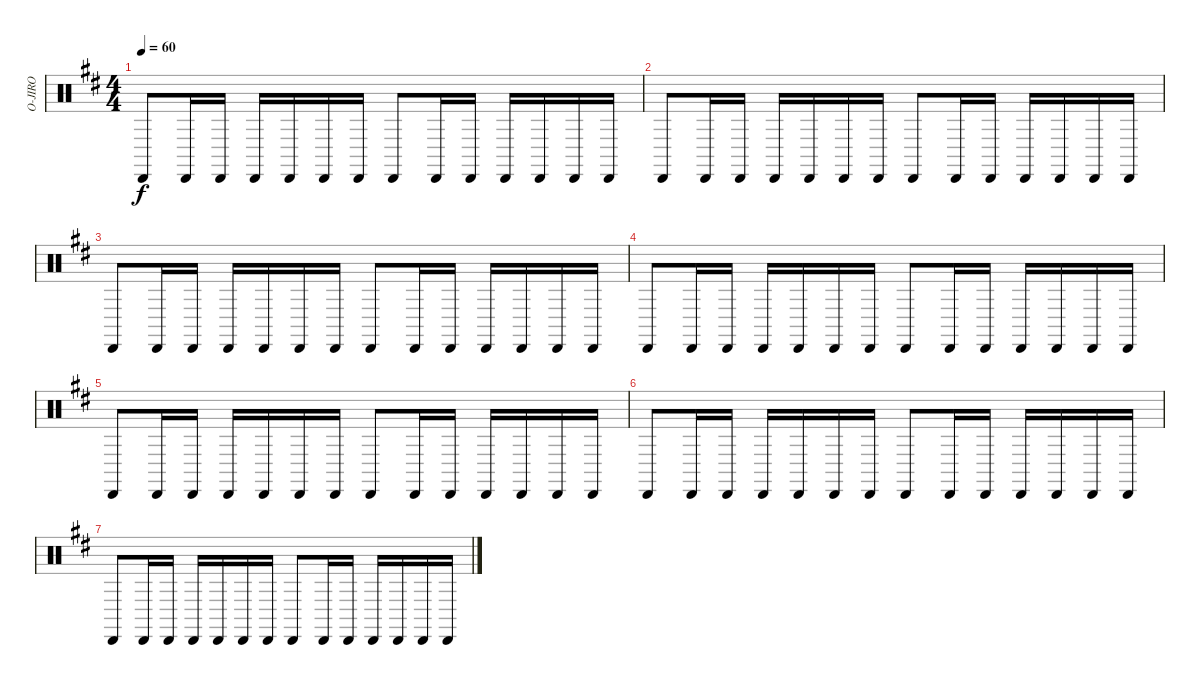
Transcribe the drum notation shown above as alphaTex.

\track ("O-JIRO" "O-JIRO") {instrument percussion}
\staff {score}
\articulation defaults
\ts (4 4)
\tempo 60
\clef neutral
\ks d "Cabasa (hit)".8{dy f} "Cabasa (hit)".16 "Cabasa (hit)".16 "Cabasa (hit)".16 "Cabasa (hit)".16 "Cabasa (hit)".16 "Cabasa (hit)".16 "Cabasa (hit)".8 "Cabasa (hit)".16 "Cabasa (hit)".16 "Cabasa (hit)".16 "Cabasa (hit)".16 "Cabasa (hit)".16 "Cabasa (hit)".16
|
"Cabasa (hit)".8 "Cabasa (hit)".16 "Cabasa (hit)".16 "Cabasa (hit)".16 "Cabasa (hit)".16 "Cabasa (hit)".16 "Cabasa (hit)".16 "Cabasa (hit)".8 "Cabasa (hit)".16 "Cabasa (hit)".16 "Cabasa (hit)".16 "Cabasa (hit)".16 "Cabasa (hit)".16 "Cabasa (hit)".16 |
"Cabasa (hit)".8 "Cabasa (hit)".16 "Cabasa (hit)".16 "Cabasa (hit)".16 "Cabasa (hit)".16 "Cabasa (hit)".16 "Cabasa (hit)".16 "Cabasa (hit)".8 "Cabasa (hit)".16 "Cabasa (hit)".16 "Cabasa (hit)".16 "Cabasa (hit)".16 "Cabasa (hit)".16 "Cabasa (hit)".16 |
"Cabasa (hit)".8 "Cabasa (hit)".16 "Cabasa (hit)".16 "Cabasa (hit)".16 "Cabasa (hit)".16 "Cabasa (hit)".16 "Cabasa (hit)".16 "Cabasa (hit)".8 "Cabasa (hit)".16 "Cabasa (hit)".16 "Cabasa (hit)".16 "Cabasa (hit)".16 "Cabasa (hit)".16 "Cabasa (hit)".16 |
"Cabasa (hit)".8 "Cabasa (hit)".16 "Cabasa (hit)".16 "Cabasa (hit)".16 "Cabasa (hit)".16 "Cabasa (hit)".16 "Cabasa (hit)".16 "Cabasa (hit)".8 "Cabasa (hit)".16 "Cabasa (hit)".16 "Cabasa (hit)".16 "Cabasa (hit)".16 "Cabasa (hit)".16 "Cabasa (hit)".16 |
"Cabasa (hit)".8 "Cabasa (hit)".16 "Cabasa (hit)".16 "Cabasa (hit)".16 "Cabasa (hit)".16 "Cabasa (hit)".16 "Cabasa (hit)".16 "Cabasa (hit)".8 "Cabasa (hit)".16 "Cabasa (hit)".16 "Cabasa (hit)".16 "Cabasa (hit)".16 "Cabasa (hit)".16 "Cabasa (hit)".16 |
"Cabasa (hit)".8 "Cabasa (hit)".16 "Cabasa (hit)".16 "Cabasa (hit)".16 "Cabasa (hit)".16 "Cabasa (hit)".16 "Cabasa (hit)".16 "Cabasa (hit)".8 "Cabasa (hit)".16 "Cabasa (hit)".16 "Cabasa (hit)".16 "Cabasa (hit)".16 "Cabasa (hit)".16 "Cabasa (hit)".16
